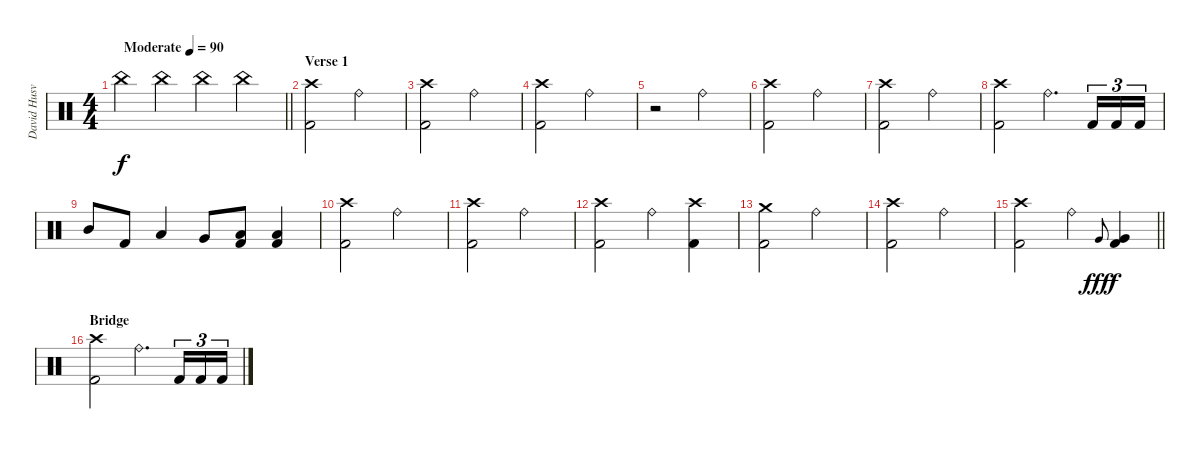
\track ("David Husvik" "David Husv") {instrument percussion}
\staff {score}
\articulation defaults
\ts (4 4)
\tempo (90 "Moderate")
\clef neutral
\barLineRight lightlight
\ks c "China (hit)".4{dy f} "China (hit)".4 "China (hit)".4 "China (hit)".4
|
\section ("" "Verse 1")
("Crash high (hit)" "Kick (hit) 2").2 "Ride (bell)".2 |
("Crash high (hit)" "Kick (hit) 2").2 "Ride (bell)".2 |
("Crash high (hit)" "Kick (hit) 2").2 "Ride (bell)".2 |
r.2 "Ride (bell)".2 |
("Crash high (hit)" "Kick (hit) 2").2 "Ride (bell)".2 |
("Crash high (hit)" "Kick (hit) 2").2 "Ride (bell)".2 |
("Crash high (hit)" "Kick (hit) 2").2 "Ride (bell)".4{d} "Kick (hit) 2".16{tu (3 2)} "Kick (hit) 2".16{tu (3 2)} "Kick (hit) 2".16{tu (3 2)} |
"Mid Tom (hit)".8 "Kick (hit) 2".8 "Low Tom (hit)".4 "Very Low Tom (hit)".8 ("Low Floor Tom (hit)" "Kick (hit) 2").8 ("Low Floor Tom (hit)" "Kick (hit) 2").4 |
("Crash high (hit)" "Kick (hit) 2").2 "Ride (bell)".2 |
("Crash high (hit)" "Kick (hit) 2").2 "Ride (bell)".2 |
("Crash high (hit)" "Kick (hit) 2").2 "Ride (bell)".4 ("Kick (hit) 2" "Crash high (hit)").4 |
("Crash medium (hit)" "Kick (hit) 2").2 "Ride (bell)".2 |
("Crash high (hit)" "Kick (hit) 2").2 "Ride (bell)".2 |
\barLineRight lightlight
("Crash high (hit)" "Kick (hit) 2").2 "Ride (bell)".4 "Very Low Tom (hit)".8{gr onbeat dy fff} ("Very Low Tom (hit)" "Kick (hit) 2").4{dy f} |
\section ("" "Bridge")
("Crash high (hit)" "Kick (hit) 2").2 "Ride (bell)".4{d} "Kick (hit) 2".16{tu (3 2)} "Kick (hit) 2".16{tu (3 2)} "Kick (hit) 2".16{tu (3 2)}
